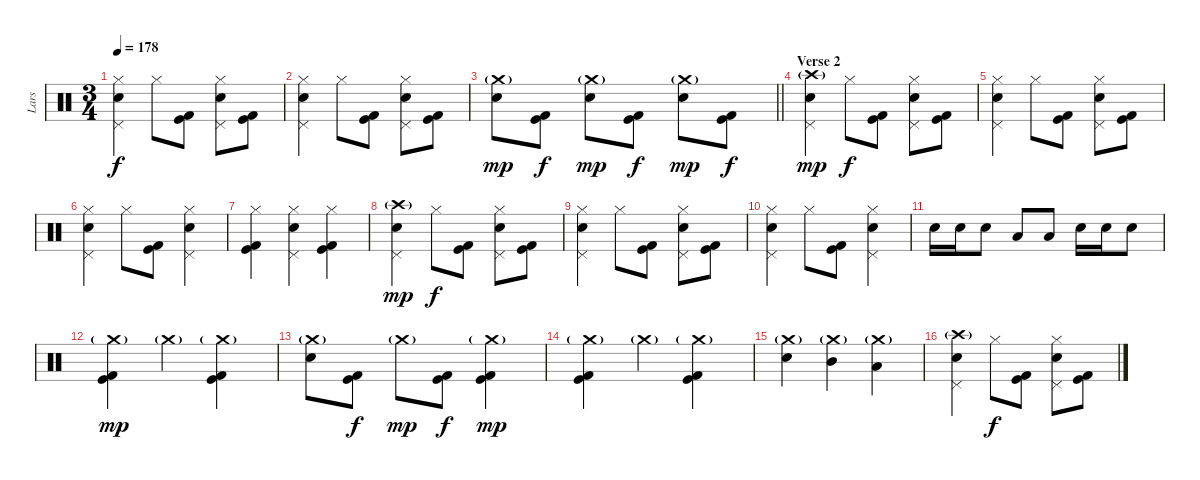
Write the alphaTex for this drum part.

\track ("Lars" "Lars") {instrument percussion}
\staff {score}
\articulation defaults
\ts (3 4)
\tempo 178
\clef neutral
\ks c
("Hi-Hat (closed)" "Pedal Hi-Hat (hit)" "Electric Snare (hit)").4{dy f} "Hi-Hat (closed)".8 ("Kick (hit)" "Kick (hit) 2").8 ("Hi-Hat (closed)" "Pedal Hi-Hat (hit)" "Electric Snare (hit)").8 ("Kick (hit)" "Kick (hit) 2").8 |
("Hi-Hat (closed)" "Pedal Hi-Hat (hit)" "Electric Snare (hit)").4 "Hi-Hat (closed)".8 ("Kick (hit)" "Kick (hit) 2").8 ("Hi-Hat (closed)" "Pedal Hi-Hat (hit)" "Electric Snare (hit)").8 ("Kick (hit)" "Kick (hit) 2").8 |
\barLineRight lightlight
("Crash medium (hit)"{g} "Electric Snare (hit)").8{dy mp} ("Kick (hit)" "Kick (hit) 2").8{dy f} ("Crash medium (hit)"{g} "Electric Snare (hit)").8{dy mp} ("Kick (hit)" "Kick (hit) 2").8{dy f} ("Crash medium (hit)"{g} "Electric Snare (hit)").8{dy mp} ("Kick (hit)" "Kick (hit) 2").8{dy f} |
\section ("" "Verse 2")
("Crash high (hit)"{g} "Pedal Hi-Hat (hit)" "Electric Snare (hit)").4{dy mp} "Hi-Hat (closed)".8{dy f} ("Kick (hit)" "Kick (hit) 2").8 ("Hi-Hat (closed)" "Pedal Hi-Hat (hit)" "Electric Snare (hit)").8 ("Kick (hit)" "Kick (hit) 2").8 |
("Hi-Hat (closed)" "Pedal Hi-Hat (hit)" "Electric Snare (hit)").4 "Hi-Hat (closed)".8 ("Kick (hit)" "Kick (hit) 2").8 ("Hi-Hat (closed)" "Pedal Hi-Hat (hit)" "Electric Snare (hit)").8 ("Kick (hit)" "Kick (hit) 2").8 |
("Hi-Hat (closed)" "Pedal Hi-Hat (hit)" "Electric Snare (hit)").4 "Hi-Hat (closed)".8 ("Kick (hit)" "Kick (hit) 2").8 ("Hi-Hat (closed)" "Pedal Hi-Hat (hit)" "Electric Snare (hit)").4 |
("Hi-Hat (closed)" "Kick (hit)" "Kick (hit) 2").4 ("Hi-Hat (closed)" "Pedal Hi-Hat (hit)" "Electric Snare (hit)").4 ("Hi-Hat (closed)" "Kick (hit)" "Kick (hit) 2").4 |
("Crash high (hit)"{g} "Pedal Hi-Hat (hit)" "Electric Snare (hit)").4{dy mp} "Hi-Hat (closed)".8{dy f} ("Kick (hit)" "Kick (hit) 2").8 ("Hi-Hat (closed)" "Pedal Hi-Hat (hit)" "Electric Snare (hit)").8 ("Kick (hit)" "Kick (hit) 2").8 |
("Hi-Hat (closed)" "Pedal Hi-Hat (hit)" "Electric Snare (hit)").4 "Hi-Hat (closed)".8 ("Kick (hit)" "Kick (hit) 2").8 ("Hi-Hat (closed)" "Pedal Hi-Hat (hit)" "Electric Snare (hit)").8 ("Kick (hit)" "Kick (hit) 2").8 |
("Hi-Hat (closed)" "Pedal Hi-Hat (hit)" "Electric Snare (hit)").4 "Hi-Hat (closed)".8 ("Kick (hit)" "Kick (hit) 2").8 ("Hi-Hat (closed)" "Pedal Hi-Hat (hit)" "Electric Snare (hit)").4 |
"Electric Snare (hit)".16 "Electric Snare (hit)".16 "Electric Snare (hit)".8 "Low Tom (hit)".8 "Low Tom (hit)".8 "Electric Snare (hit)".16 "Electric Snare (hit)".16 "Electric Snare (hit)".8 |
("Crash medium (hit)"{g} "Kick (hit)" "Kick (hit) 2").4{dy mp} "Crash medium (hit)"{g}.4 ("Crash medium (hit)"{g} "Kick (hit)" "Kick (hit) 2").4 |
("Crash medium (hit)"{g} "Electric Snare (hit)").8 ("Kick (hit)" "Kick (hit) 2").8{dy f} "Crash medium (hit)"{g}.8{dy mp} ("Kick (hit)" "Kick (hit) 2").8{dy f} ("Crash medium (hit)"{g} "Kick (hit)" "Kick (hit) 2").4{dy mp} |
("Crash medium (hit)"{g} "Kick (hit)" "Kick (hit) 2").4 "Crash medium (hit)"{g}.4 ("Crash medium (hit)"{g} "Kick (hit)" "Kick (hit) 2").4 |
("Crash medium (hit)"{g} "Electric Snare (hit)").4 ("Crash medium (hit)"{g} "Mid Tom (hit)").4 ("Crash medium (hit)"{g} "Low Tom (hit)").4 |
("Crash high (hit)"{g} "Pedal Hi-Hat (hit)" "Electric Snare (hit)").4 "Hi-Hat (closed)".8{dy f} ("Kick (hit)" "Kick (hit) 2").8 ("Hi-Hat (closed)" "Pedal Hi-Hat (hit)" "Electric Snare (hit)").8 ("Kick (hit)" "Kick (hit) 2").8
